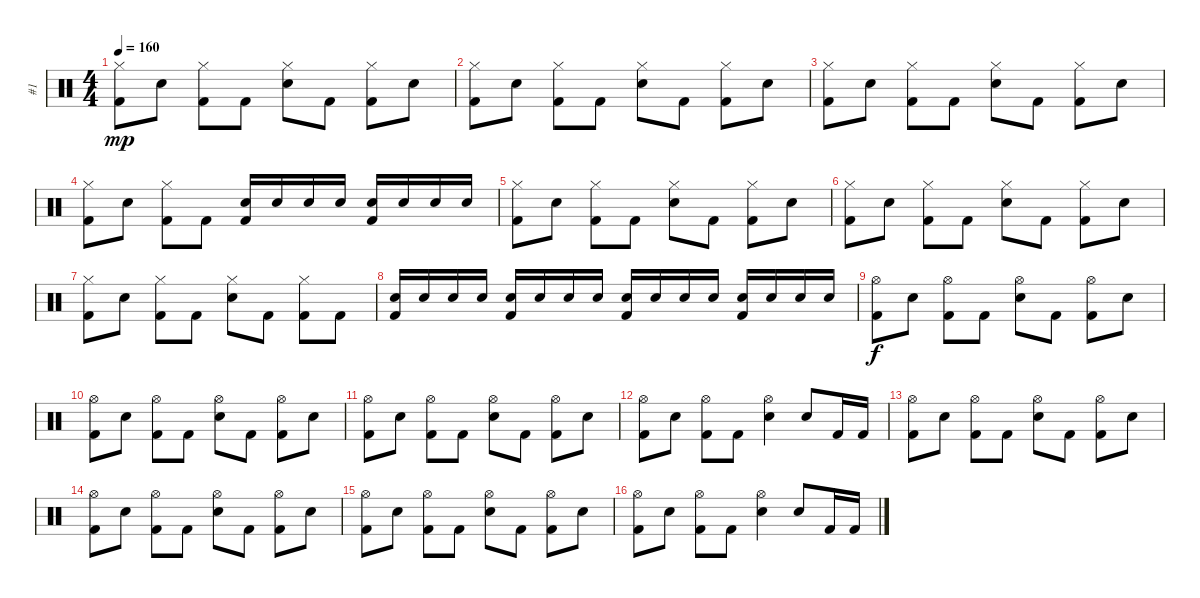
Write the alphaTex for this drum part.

\track ("#1" "#1") {instrument percussion}
\staff {score}
\articulation defaults
\ts (4 4)
\tempo 160
\clef neutral
\ks c
("Kick (hit) 2" "Hi-Hat (closed)").8{dy mp} "Electric Snare (hit)".8 ("Kick (hit) 2" "Hi-Hat (closed)").8 "Kick (hit) 2".8 ("Electric Snare (hit)" "Hi-Hat (closed)").8 "Kick (hit) 2".8 ("Kick (hit) 2" "Hi-Hat (closed)").8 "Electric Snare (hit)".8 |
("Kick (hit) 2" "Hi-Hat (closed)").8 "Electric Snare (hit)".8 ("Kick (hit) 2" "Hi-Hat (closed)").8 "Kick (hit) 2".8 ("Electric Snare (hit)" "Hi-Hat (closed)").8 "Kick (hit) 2".8 ("Kick (hit) 2" "Hi-Hat (closed)").8 "Electric Snare (hit)".8 |
("Kick (hit) 2" "Hi-Hat (closed)").8 "Electric Snare (hit)".8 ("Kick (hit) 2" "Hi-Hat (closed)").8 "Kick (hit) 2".8 ("Electric Snare (hit)" "Hi-Hat (closed)").8 "Kick (hit) 2".8 ("Kick (hit) 2" "Hi-Hat (closed)").8 "Electric Snare (hit)".8 |
("Kick (hit) 2" "Hi-Hat (closed)").8 "Electric Snare (hit)".8 ("Kick (hit) 2" "Hi-Hat (closed)").8 "Kick (hit) 2".8 ("Electric Snare (hit)" "Kick (hit) 2").16 "Electric Snare (hit)".16 "Electric Snare (hit)".16 "Electric Snare (hit)".16 ("Electric Snare (hit)" "Kick (hit) 2").16 "Electric Snare (hit)".16 "Electric Snare (hit)".16 "Electric Snare (hit)".16 |
("Kick (hit) 2" "Hi-Hat (closed)").8 "Electric Snare (hit)".8 ("Kick (hit) 2" "Hi-Hat (closed)").8 "Kick (hit) 2".8 ("Electric Snare (hit)" "Hi-Hat (closed)").8 "Kick (hit) 2".8 ("Kick (hit) 2" "Hi-Hat (closed)").8 "Electric Snare (hit)".8 |
("Kick (hit) 2" "Hi-Hat (closed)").8 "Electric Snare (hit)".8 ("Kick (hit) 2" "Hi-Hat (closed)").8 "Kick (hit) 2".8 ("Electric Snare (hit)" "Hi-Hat (closed)").8 "Kick (hit) 2".8 ("Kick (hit) 2" "Hi-Hat (closed)").8 "Electric Snare (hit)".8 |
("Kick (hit) 2" "Hi-Hat (closed)").8 "Electric Snare (hit)".8 ("Kick (hit) 2" "Hi-Hat (closed)").8 "Kick (hit) 2".8 ("Electric Snare (hit)" "Hi-Hat (closed)").8 "Kick (hit) 2".8 ("Kick (hit) 2" "Hi-Hat (closed)").8 "Kick (hit) 2".8 |
("Electric Snare (hit)" "Kick (hit) 2").16 "Electric Snare (hit)".16 "Electric Snare (hit)".16 "Electric Snare (hit)".16 ("Electric Snare (hit)" "Kick (hit) 2").16 "Electric Snare (hit)".16 "Electric Snare (hit)".16 "Electric Snare (hit)".16 ("Electric Snare (hit)" "Kick (hit) 2").16 "Electric Snare (hit)".16 "Electric Snare (hit)".16 "Electric Snare (hit)".16 ("Electric Snare (hit)" "Kick (hit) 2").16 "Electric Snare (hit)".16 "Electric Snare (hit)".16 "Electric Snare (hit)".16 |
("Kick (hit) 2" "Hi-Hat (open)").8{dy f} "Electric Snare (hit)".8 ("Kick (hit) 2" "Hi-Hat (open)").8 "Kick (hit) 2".8 ("Electric Snare (hit)" "Hi-Hat (open)").8 "Kick (hit) 2".8 ("Kick (hit) 2" "Hi-Hat (open)").8 "Electric Snare (hit)".8 |
("Kick (hit) 2" "Hi-Hat (open)").8 "Electric Snare (hit)".8 ("Kick (hit) 2" "Hi-Hat (open)").8 "Kick (hit) 2".8 ("Electric Snare (hit)" "Hi-Hat (open)").8 "Kick (hit) 2".8 ("Kick (hit) 2" "Hi-Hat (open)").8 "Electric Snare (hit)".8 |
("Kick (hit) 2" "Hi-Hat (open)").8 "Electric Snare (hit)".8 ("Kick (hit) 2" "Hi-Hat (open)").8 "Kick (hit) 2".8 ("Electric Snare (hit)" "Hi-Hat (open)").8 "Kick (hit) 2".8 ("Kick (hit) 2" "Hi-Hat (open)").8 "Electric Snare (hit)".8 |
("Kick (hit) 2" "Hi-Hat (open)").8 "Electric Snare (hit)".8 ("Kick (hit) 2" "Hi-Hat (open)").8 "Kick (hit) 2".8 ("Electric Snare (hit)" "Hi-Hat (open)").4 "Electric Snare (hit)".8 "Kick (hit) 2".16 "Kick (hit) 2".16 |
("Kick (hit) 2" "Hi-Hat (open)").8 "Electric Snare (hit)".8 ("Kick (hit) 2" "Hi-Hat (open)").8 "Kick (hit) 2".8 ("Electric Snare (hit)" "Hi-Hat (open)").8 "Kick (hit) 2".8 ("Kick (hit) 2" "Hi-Hat (open)").8 "Electric Snare (hit)".8 |
("Kick (hit) 2" "Hi-Hat (open)").8 "Electric Snare (hit)".8 ("Kick (hit) 2" "Hi-Hat (open)").8 "Kick (hit) 2".8 ("Electric Snare (hit)" "Hi-Hat (open)").8 "Kick (hit) 2".8 ("Kick (hit) 2" "Hi-Hat (open)").8 "Electric Snare (hit)".8 |
("Kick (hit) 2" "Hi-Hat (open)").8 "Electric Snare (hit)".8 ("Kick (hit) 2" "Hi-Hat (open)").8 "Kick (hit) 2".8 ("Electric Snare (hit)" "Hi-Hat (open)").8 "Kick (hit) 2".8 ("Kick (hit) 2" "Hi-Hat (open)").8 "Electric Snare (hit)".8 |
("Kick (hit) 2" "Hi-Hat (open)").8 "Electric Snare (hit)".8 ("Kick (hit) 2" "Hi-Hat (open)").8 "Kick (hit) 2".8 ("Electric Snare (hit)" "Hi-Hat (open)").4 "Electric Snare (hit)".8 "Kick (hit) 2".16 "Kick (hit) 2".16
